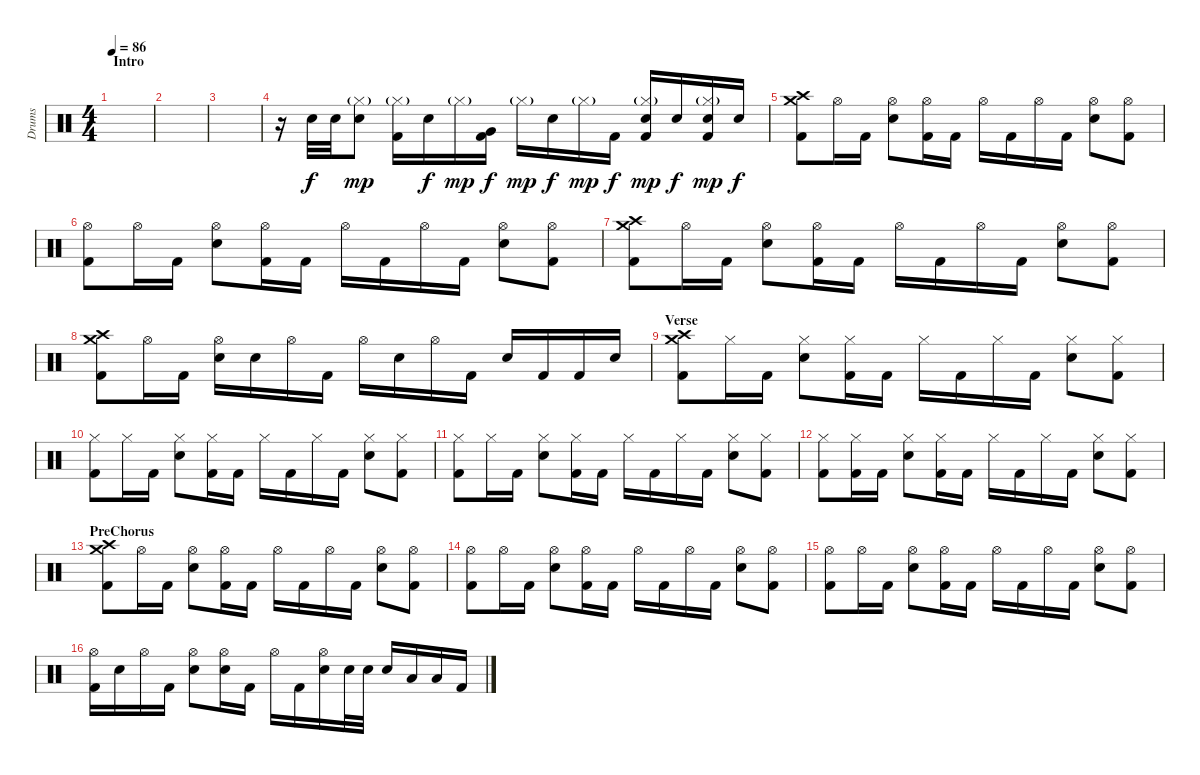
\track ("Drums" "Drums") {instrument percussion}
\staff {score}
\articulation defaults
\ts (4 4)
\section ("" "Intro")
\tempo 86
\clef neutral
\ks c
|
|
|
r.16 "Snare (hit) 2".32 "Snare (hit) 2".32 ("Hi-Hat (closed)"{g} "Snare (hit) 2").8{dy mp} ("Hi-Hat (closed)"{g} "Kick (hit) 2").16 "Snare (hit) 2".16{dy f} "Hi-Hat (closed)"{g}.16{dy mp} ("Very Low Tom (hit)" "Kick (hit) 2").16{dy f} "Hi-Hat (closed)"{g}.16{dy mp} "Snare (hit) 2".16{dy f} "Hi-Hat (closed)"{g}.16{dy mp} "Kick (hit) 2".16{dy f} ("Hi-Hat (closed)"{g} "Snare (hit) 2" "Kick (hit) 2").16{dy mp} "Snare (hit) 2".16{dy f} ("Hi-Hat (closed)"{g} "Snare (hit) 2" "Kick (hit) 2").16{dy mp} "Snare (hit) 2".16{dy f} |
("Crash high (hit)" "Crash medium (hit)" "Kick (hit) 2").8 "Hi-Hat (open)".16 "Kick (hit) 2".16 ("Hi-Hat (open)" "Snare (hit) 2").8 ("Hi-Hat (open)" "Kick (hit) 2").16 "Kick (hit) 2".16 "Hi-Hat (open)".16 "Kick (hit) 2".16 "Hi-Hat (open)".16 "Kick (hit) 2".16 ("Hi-Hat (open)" "Snare (hit) 2").8 ("Hi-Hat (open)" "Kick (hit) 2").8 |
("Hi-Hat (open)" "Kick (hit) 2").8 "Hi-Hat (open)".16 "Kick (hit) 2".16 ("Hi-Hat (open)" "Snare (hit) 2").8 ("Hi-Hat (open)" "Kick (hit) 2").16 "Kick (hit) 2".16 "Hi-Hat (open)".16 "Kick (hit) 2".16 "Hi-Hat (open)".16 "Kick (hit) 2".16 ("Hi-Hat (open)" "Snare (hit) 2").8 ("Hi-Hat (open)" "Kick (hit) 2").8 |
("Crash high (hit)" "Crash medium (hit)" "Kick (hit) 2").8 "Hi-Hat (open)".16 "Kick (hit) 2".16 ("Hi-Hat (open)" "Snare (hit) 2").8 ("Hi-Hat (open)" "Kick (hit) 2").16 "Kick (hit) 2".16 "Hi-Hat (open)".16 "Kick (hit) 2".16 "Hi-Hat (open)".16 "Kick (hit) 2".16 ("Hi-Hat (open)" "Snare (hit) 2").8 ("Hi-Hat (open)" "Kick (hit) 2").8 |
("Crash high (hit)" "Crash medium (hit)" "Kick (hit) 2").8 "Hi-Hat (open)".16 "Kick (hit) 2".16 ("Hi-Hat (open)" "Snare (hit) 2").16 "Snare (hit) 2".16 "Hi-Hat (open)".16 "Kick (hit) 2".16 "Hi-Hat (open)".16 "Snare (hit) 2".16 "Hi-Hat (open)".16 "Kick (hit) 2".16 "Snare (hit) 2".16 "Kick (hit) 2".16 "Kick (hit) 2".16 "Snare (hit) 2".16 |
\section ("" "Verse")
("Crash high (hit)" "Crash medium (hit)" "Kick (hit) 2").8 "Hi-Hat (closed)".16 "Kick (hit) 2".16 ("Hi-Hat (closed)" "Snare (hit) 2").8 ("Hi-Hat (closed)" "Kick (hit) 2").16 "Kick (hit) 2".16 "Hi-Hat (closed)".16 "Kick (hit) 2".16 "Hi-Hat (closed)".16 "Kick (hit) 2".16 ("Hi-Hat (closed)" "Snare (hit) 2").8 ("Hi-Hat (closed)" "Kick (hit) 2").8 |
("Hi-Hat (closed)" "Kick (hit) 2").8 "Hi-Hat (closed)".16 "Kick (hit) 2".16 ("Hi-Hat (closed)" "Snare (hit) 2").8 ("Hi-Hat (closed)" "Kick (hit) 2").16 "Kick (hit) 2".16 "Hi-Hat (closed)".16 "Kick (hit) 2".16 "Hi-Hat (closed)".16 "Kick (hit) 2".16 ("Hi-Hat (closed)" "Snare (hit) 2").8 ("Hi-Hat (closed)" "Kick (hit) 2").8 |
("Hi-Hat (closed)" "Kick (hit) 2").8 "Hi-Hat (closed)".16 "Kick (hit) 2".16 ("Hi-Hat (closed)" "Snare (hit) 2").8 ("Hi-Hat (closed)" "Kick (hit) 2").16 "Kick (hit) 2".16 "Hi-Hat (closed)".16 "Kick (hit) 2".16 "Hi-Hat (closed)".16 "Kick (hit) 2".16 ("Hi-Hat (closed)" "Snare (hit) 2").8 ("Hi-Hat (closed)" "Kick (hit) 2").8 |
("Hi-Hat (closed)" "Kick (hit) 2").8 ("Hi-Hat (closed)" "Kick (hit) 2").16 "Kick (hit) 2".16 ("Hi-Hat (closed)" "Snare (hit) 2").8 ("Hi-Hat (closed)" "Kick (hit) 2").16 "Kick (hit) 2".16 "Hi-Hat (closed)".16 "Kick (hit) 2".16 "Hi-Hat (closed)".16 "Kick (hit) 2".16 ("Hi-Hat (closed)" "Snare (hit) 2").8 ("Hi-Hat (closed)" "Kick (hit) 2").8 |
\section ("" "PreChorus")
("Crash high (hit)" "Crash medium (hit)" "Kick (hit) 2").8 "Hi-Hat (open)".16 "Kick (hit) 2".16 ("Hi-Hat (open)" "Snare (hit) 2").8 ("Hi-Hat (open)" "Kick (hit) 2").16 "Kick (hit) 2".16 "Hi-Hat (open)".16 "Kick (hit) 2".16 "Hi-Hat (open)".16 "Kick (hit) 2".16 ("Hi-Hat (open)" "Snare (hit) 2").8 ("Hi-Hat (open)" "Kick (hit) 2").8 |
("Hi-Hat (open)" "Kick (hit) 2").8 "Hi-Hat (open)".16 "Kick (hit) 2".16 ("Hi-Hat (open)" "Snare (hit) 2").8 ("Hi-Hat (open)" "Kick (hit) 2").16 "Kick (hit) 2".16 "Hi-Hat (open)".16 "Kick (hit) 2".16 "Hi-Hat (open)".16 "Kick (hit) 2".16 ("Hi-Hat (open)" "Snare (hit) 2").8 ("Hi-Hat (open)" "Kick (hit) 2").8 |
("Hi-Hat (open)" "Kick (hit) 2").8 "Hi-Hat (open)".16 "Kick (hit) 2".16 ("Hi-Hat (open)" "Snare (hit) 2").8 ("Hi-Hat (open)" "Kick (hit) 2").16 "Kick (hit) 2".16 "Hi-Hat (open)".16 "Kick (hit) 2".16 "Hi-Hat (open)".16 "Kick (hit) 2".16 ("Hi-Hat (open)" "Snare (hit) 2").8 ("Hi-Hat (open)" "Kick (hit) 2").8 |
("Hi-Hat (open)" "Kick (hit) 2").16 "Snare (hit) 2".16 "Hi-Hat (open)".16 "Kick (hit) 2".16 ("Hi-Hat (open)" "Snare (hit) 2").8 ("Hi-Hat (open)" "Snare (hit) 2").16 "Kick (hit) 2".16 "Hi-Hat (open)".16 "Kick (hit) 2".16 ("Hi-Hat (open)" "Snare (hit) 2").16 "Snare (hit) 2".32 "Snare (hit) 2".32 "Snare (hit) 2".16 "Low Tom (hit)".16 "Low Floor Tom (hit)".16 "Kick (hit) 2".16
